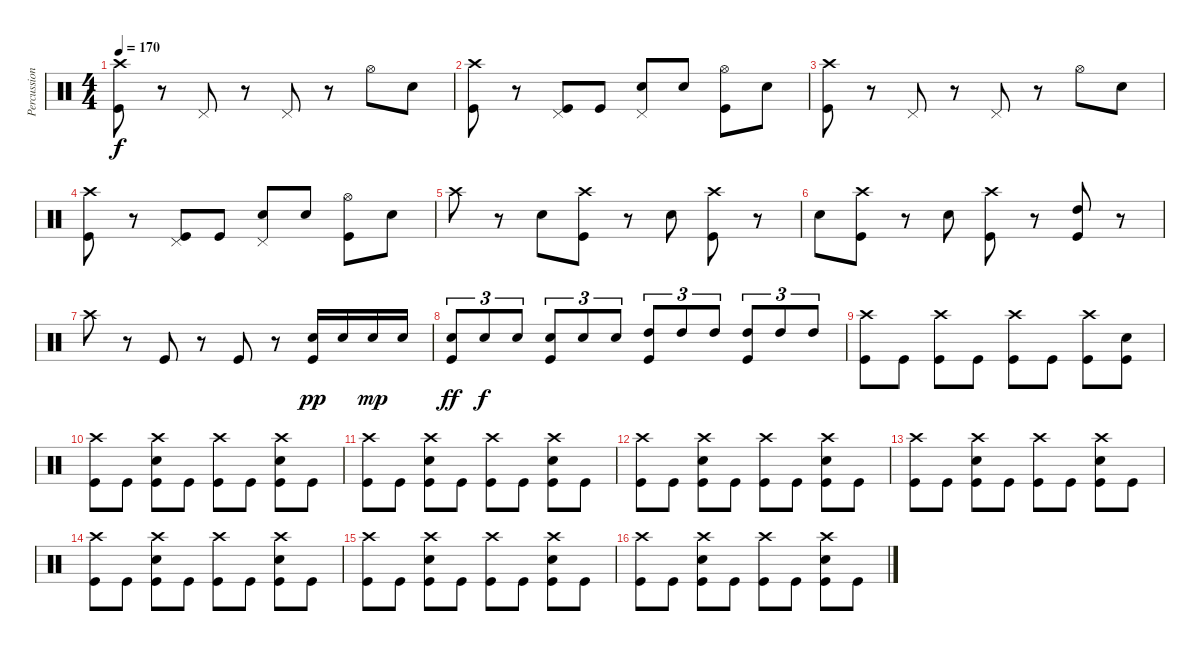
\track ("Percussion" "Percussion") {instrument percussion}
\staff {score}
\articulation defaults
\ts (4 4)
\tempo 170
\clef neutral
\ks c
("Crash high (hit)" "Kick (hit)").8{dy f} r.8 "Pedal Hi-Hat (hit)".8 r.8 "Pedal Hi-Hat (hit)".8 r.8 "Hi-Hat (open)".8 "Snare (hit) 2".8 |
("Crash high (hit)" "Kick (hit)").8 r.8 ("Pedal Hi-Hat (hit)" "Kick (hit)").8 "Kick (hit)".8 ("Snare (hit) 2" "Pedal Hi-Hat (hit)").8 "Snare (hit) 2".8 ("Hi-Hat (open)" "Kick (hit)").8 "Snare (hit) 2".8 |
("Crash high (hit)" "Kick (hit)").8 r.8 "Pedal Hi-Hat (hit)".8 r.8 "Pedal Hi-Hat (hit)".8 r.8 "Hi-Hat (open)".8 "Snare (hit) 2".8 |
("Crash high (hit)" "Kick (hit)").8 r.8 ("Pedal Hi-Hat (hit)" "Kick (hit)").8 "Kick (hit)".8 ("Snare (hit) 2" "Pedal Hi-Hat (hit)").8 "Snare (hit) 2".8 ("Hi-Hat (open)" "Kick (hit)").8 "Snare (hit) 2".8 |
"Crash high (hit)".8 r.8 "Snare (hit) 2".8 ("Crash high (hit)" "Kick (hit)").8 r.8 "Snare (hit) 2".8 ("Crash high (hit)" "Kick (hit)").8 r.8 |
"Snare (hit) 2".8 ("Crash high (hit)" "Kick (hit)").8 r.8 "Snare (hit) 2".8 ("Crash high (hit)" "Kick (hit)").8 r.8 ("High Tom (hit)" "Kick (hit)").8 r.8 |
"Crash high (hit)".8 r.8 "Kick (hit)".8 r.8 "Kick (hit)".8 r.8 ("Snare (hit) 2" "Kick (hit)").16{dy pp} "Snare (hit) 2".16 "Snare (hit) 2".16{dy mp} "Snare (hit) 2".16 |
("Snare (hit) 2" "Kick (hit)").8{tu (3 2) dy ff} "Snare (hit) 2".8{tu (3 2) dy f} "Snare (hit) 2".8{tu (3 2)} ("Snare (hit) 2" "Kick (hit)").8{tu (3 2)} "Snare (hit) 2".8{tu (3 2)} "Snare (hit) 2".8{tu (3 2)} ("High Tom (hit)" "Kick (hit)").8{tu (3 2)} "High Tom (hit)".8{tu (3 2)} "High Tom (hit)".8{tu (3 2)} ("High Tom (hit)" "Kick (hit)").8{tu (3 2)} "High Tom (hit)".8{tu (3 2)} "High Tom (hit)".8{tu (3 2)} |
("Crash high (hit)" "Kick (hit)").8 "Kick (hit)".8 ("Crash high (hit)" "Kick (hit)").8 "Kick (hit)".8 ("Crash high (hit)" "Kick (hit)").8 "Kick (hit)".8 ("Crash high (hit)" "Kick (hit)").8 ("Snare (hit) 2" "Kick (hit)").8 |
("Crash high (hit)" "Kick (hit)").8 "Kick (hit)".8 ("Snare (hit) 2" "Crash high (hit)" "Kick (hit)").8 "Kick (hit)".8 ("Crash high (hit)" "Kick (hit)").8 "Kick (hit)".8 ("Snare (hit) 2" "Crash high (hit)" "Kick (hit)").8 "Kick (hit)".8 |
("Crash high (hit)" "Kick (hit)").8 "Kick (hit)".8 ("Snare (hit) 2" "Crash high (hit)" "Kick (hit)").8 "Kick (hit)".8 ("Crash high (hit)" "Kick (hit)").8 "Kick (hit)".8 ("Snare (hit) 2" "Crash high (hit)" "Kick (hit)").8 "Kick (hit)".8 |
("Crash high (hit)" "Kick (hit)").8 "Kick (hit)".8 ("Snare (hit) 2" "Crash high (hit)" "Kick (hit)").8 "Kick (hit)".8 ("Crash high (hit)" "Kick (hit)").8 "Kick (hit)".8 ("Snare (hit) 2" "Crash high (hit)" "Kick (hit)").8 "Kick (hit)".8 |
("Crash high (hit)" "Kick (hit)").8 "Kick (hit)".8 ("Snare (hit) 2" "Crash high (hit)" "Kick (hit)").8 "Kick (hit)".8 ("Crash high (hit)" "Kick (hit)").8 "Kick (hit)".8 ("Snare (hit) 2" "Crash high (hit)" "Kick (hit)").8 "Kick (hit)".8 |
("Crash high (hit)" "Kick (hit)").8 "Kick (hit)".8 ("Snare (hit) 2" "Crash high (hit)" "Kick (hit)").8 "Kick (hit)".8 ("Crash high (hit)" "Kick (hit)").8 "Kick (hit)".8 ("Snare (hit) 2" "Crash high (hit)" "Kick (hit)").8 "Kick (hit)".8 |
("Crash high (hit)" "Kick (hit)").8 "Kick (hit)".8 ("Snare (hit) 2" "Crash high (hit)" "Kick (hit)").8 "Kick (hit)".8 ("Crash high (hit)" "Kick (hit)").8 "Kick (hit)".8 ("Snare (hit) 2" "Crash high (hit)" "Kick (hit)").8 "Kick (hit)".8 |
("Crash high (hit)" "Kick (hit)").8 "Kick (hit)".8 ("Snare (hit) 2" "Crash high (hit)" "Kick (hit)").8 "Kick (hit)".8 ("Crash high (hit)" "Kick (hit)").8 "Kick (hit)".8 ("Snare (hit) 2" "Crash high (hit)" "Kick (hit)").8 "Kick (hit)".8
